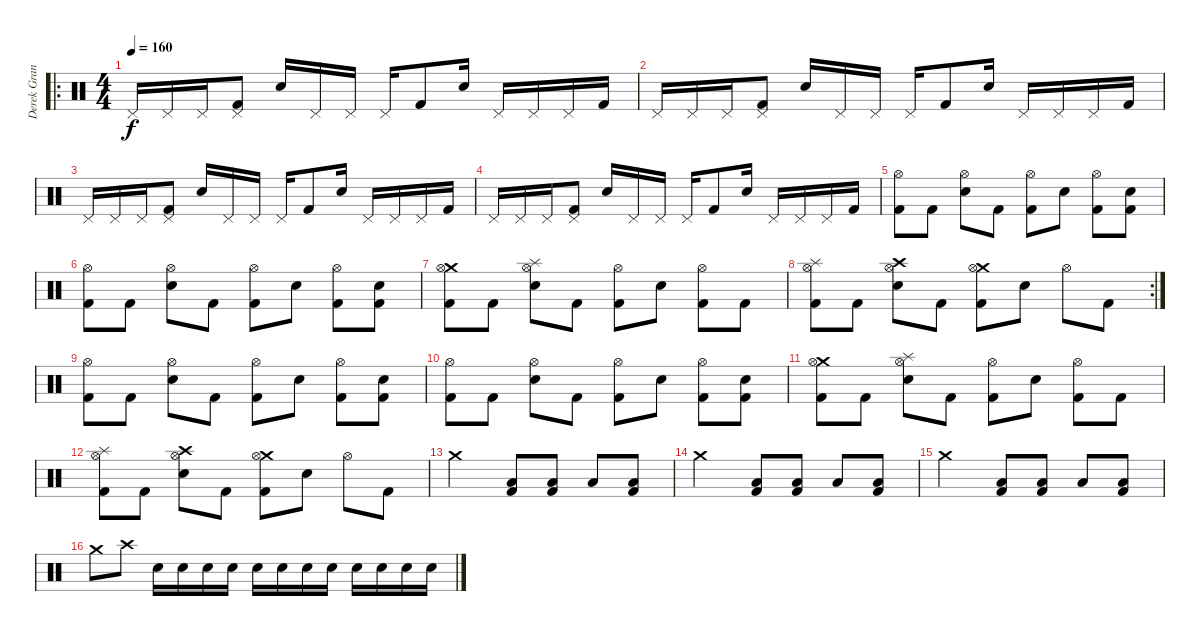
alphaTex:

\track ("Derek Grant" "Derek Gran") {instrument percussion}
\staff {score}
\articulation defaults
\ro
\ts (4 4)
\tempo 160
\clef neutral
\ks c "Pedal Hi-Hat (hit)".16{dy f} "Pedal Hi-Hat (hit)".16 "Pedal Hi-Hat (hit)".16
("Pedal Hi-Hat (hit)" "Kick (hit) 2").8 "Snare (hit) 2".16 "Pedal Hi-Hat (hit)".16 "Pedal Hi-Hat (hit)".16 "Pedal Hi-Hat (hit)".16 "Kick (hit) 2".8 "Snare (hit) 2".16 "Pedal Hi-Hat (hit)".16 "Pedal Hi-Hat (hit)".16 "Pedal Hi-Hat (hit)".16 "Kick (hit) 2".16 |
"Pedal Hi-Hat (hit)".16 "Pedal Hi-Hat (hit)".16 "Pedal Hi-Hat (hit)".16 ("Pedal Hi-Hat (hit)" "Kick (hit) 2").8 "Snare (hit) 2".16 "Pedal Hi-Hat (hit)".16 "Pedal Hi-Hat (hit)".16 "Pedal Hi-Hat (hit)".16 "Kick (hit) 2".8 "Snare (hit) 2".16 "Pedal Hi-Hat (hit)".16 "Pedal Hi-Hat (hit)".16 "Pedal Hi-Hat (hit)".16 "Kick (hit) 2".16 |
"Pedal Hi-Hat (hit)".16 "Pedal Hi-Hat (hit)".16 "Pedal Hi-Hat (hit)".16 ("Pedal Hi-Hat (hit)" "Kick (hit) 2").8 "Snare (hit) 2".16 "Pedal Hi-Hat (hit)".16 "Pedal Hi-Hat (hit)".16 "Pedal Hi-Hat (hit)".16 "Kick (hit) 2".8 "Snare (hit) 2".16 "Pedal Hi-Hat (hit)".16 "Pedal Hi-Hat (hit)".16 "Pedal Hi-Hat (hit)".16 "Kick (hit) 2".16 |
"Pedal Hi-Hat (hit)".16 "Pedal Hi-Hat (hit)".16 "Pedal Hi-Hat (hit)".16 ("Pedal Hi-Hat (hit)" "Kick (hit) 2").8 "Snare (hit) 2".16 "Pedal Hi-Hat (hit)".16 "Pedal Hi-Hat (hit)".16 "Pedal Hi-Hat (hit)".16 "Kick (hit) 2".8 "Snare (hit) 2".16 "Pedal Hi-Hat (hit)".16 "Pedal Hi-Hat (hit)".16 "Pedal Hi-Hat (hit)".16 "Kick (hit) 2".16 |
("Hi-Hat (open)" "Kick (hit) 2").8 "Kick (hit) 2".8 ("Hi-Hat (open)" "Snare (hit) 2").8 "Kick (hit) 2".8 ("Hi-Hat (open)" "Kick (hit) 2").8 "Snare (hit) 2".8 ("Hi-Hat (open)" "Kick (hit) 2").8 ("Snare (hit) 2" "Kick (hit) 2").8 |
("Hi-Hat (open)" "Kick (hit) 2").8 "Kick (hit) 2".8 ("Hi-Hat (open)" "Snare (hit) 2").8 "Kick (hit) 2".8 ("Hi-Hat (open)" "Kick (hit) 2").8 "Snare (hit) 2".8 ("Hi-Hat (open)" "Kick (hit) 2").8 ("Snare (hit) 2" "Kick (hit) 2").8 |
("Crash medium (hit)" "Hi-Hat (open)" "Kick (hit) 2").8 "Kick (hit) 2".8 ("Splash (hit)" "Hi-Hat (open)" "Snare (hit) 2").8 "Kick (hit) 2".8 ("Hi-Hat (open)" "Kick (hit) 2").8 "Snare (hit) 2".8 ("Hi-Hat (open)" "Kick (hit) 2").8 "Kick (hit) 2".8 |
\rc 2
("Splash (hit)" "Hi-Hat (open)" "Kick (hit) 2").8 "Kick (hit) 2".8 ("Crash high (hit)" "Hi-Hat (open)" "Snare (hit) 2").8 "Kick (hit) 2".8 ("Crash medium (hit)" "Hi-Hat (open)" "Kick (hit) 2").8 "Snare (hit) 2".8 "Hi-Hat (open)".8 "Kick (hit) 2".8 |
("Hi-Hat (open)" "Kick (hit) 2").8 "Kick (hit) 2".8 ("Hi-Hat (open)" "Snare (hit) 2").8 "Kick (hit) 2".8 ("Hi-Hat (open)" "Kick (hit) 2").8 "Snare (hit) 2".8 ("Hi-Hat (open)" "Kick (hit) 2").8 ("Snare (hit) 2" "Kick (hit) 2").8 |
("Hi-Hat (open)" "Kick (hit) 2").8 "Kick (hit) 2".8 ("Hi-Hat (open)" "Snare (hit) 2").8 "Kick (hit) 2".8 ("Hi-Hat (open)" "Kick (hit) 2").8 "Snare (hit) 2".8 ("Hi-Hat (open)" "Kick (hit) 2").8 ("Snare (hit) 2" "Kick (hit) 2").8 |
("Crash medium (hit)" "Hi-Hat (open)" "Kick (hit) 2").8 "Kick (hit) 2".8 ("Splash (hit)" "Hi-Hat (open)" "Snare (hit) 2").8 "Kick (hit) 2".8 ("Hi-Hat (open)" "Kick (hit) 2").8 "Snare (hit) 2".8 ("Hi-Hat (open)" "Kick (hit) 2").8 "Kick (hit) 2".8 |
("Splash (hit)" "Hi-Hat (open)" "Kick (hit) 2").8 "Kick (hit) 2".8 ("Crash high (hit)" "Hi-Hat (open)" "Snare (hit) 2").8 "Kick (hit) 2".8 ("Crash medium (hit)" "Hi-Hat (open)" "Kick (hit) 2").8 "Snare (hit) 2".8 "Hi-Hat (open)".8 "Kick (hit) 2".8 |
"Crash medium (hit)".2 ("Low Floor Tom (hit)" "Kick (hit) 2").8 ("Low Floor Tom (hit)" "Kick (hit) 2").8 "Low Floor Tom (hit)".8 ("Low Floor Tom (hit)" "Kick (hit) 2").8 |
"Crash medium (hit)".2 ("Low Floor Tom (hit)" "Kick (hit) 2").8 ("Low Floor Tom (hit)" "Kick (hit) 2").8 "Low Floor Tom (hit)".8 ("Low Floor Tom (hit)" "Kick (hit) 2").8 |
"Crash medium (hit)".2 ("Low Floor Tom (hit)" "Kick (hit) 2").8 ("Low Floor Tom (hit)" "Kick (hit) 2").8 "Low Floor Tom (hit)".8 ("Low Floor Tom (hit)" "Kick (hit) 2").8 |
"Crash medium (hit)".8 "Crash high (hit)".8 "Snare (hit) 2".16 "Snare (hit) 2".16 "Snare (hit) 2".16 "Snare (hit) 2".16 "Snare (hit) 2".16 "Snare (hit) 2".16 "Snare (hit) 2".16 "Snare (hit) 2".16 "Snare (hit) 2".16 "Snare (hit) 2".16 "Snare (hit) 2".16 "Snare (hit) 2".16
